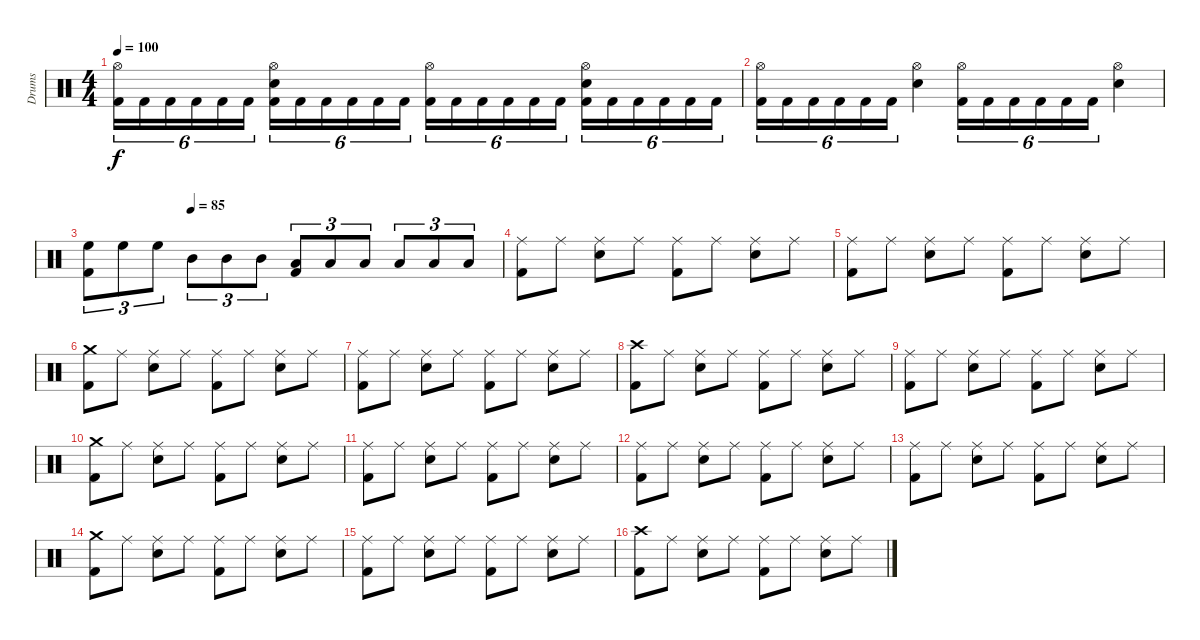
\track ("Drums" "Drums") {instrument percussion}
\staff {score}
\articulation defaults
\ts (4 4)
\tempo 100
\clef neutral
\ks c
("Hi-Hat (open)" "Kick (hit) 2").16{tu (6 4) dy f} "Kick (hit) 2".16{tu (6 4)} "Kick (hit) 2".16{tu (6 4)} "Kick (hit) 2".16{tu (6 4)} "Kick (hit) 2".16{tu (6 4)} "Kick (hit) 2".16{tu (6 4)} ("Hi-Hat (open)" "Snare (hit) 2" "Kick (hit) 2").16{tu (6 4)} "Kick (hit) 2".16{tu (6 4)} "Kick (hit) 2".16{tu (6 4)} "Kick (hit) 2".16{tu (6 4)} "Kick (hit) 2".16{tu (6 4)} "Kick (hit) 2".16{tu (6 4)} ("Hi-Hat (open)" "Kick (hit) 2").16{tu (6 4)} "Kick (hit) 2".16{tu (6 4)} "Kick (hit) 2".16{tu (6 4)} "Kick (hit) 2".16{tu (6 4)} "Kick (hit) 2".16{tu (6 4)} "Kick (hit) 2".16{tu (6 4)} ("Hi-Hat (open)" "Snare (hit) 2" "Kick (hit) 2").16{tu (6 4)} "Kick (hit) 2".16{tu (6 4)} "Kick (hit) 2".16{tu (6 4)} "Kick (hit) 2".16{tu (6 4)} "Kick (hit) 2".16{tu (6 4)} "Kick (hit) 2".16{tu (6 4)} |
("Hi-Hat (open)" "Kick (hit) 2").16{tu (6 4)} "Kick (hit) 2".16{tu (6 4)} "Kick (hit) 2".16{tu (6 4)} "Kick (hit) 2".16{tu (6 4)} "Kick (hit) 2".16{tu (6 4)} "Kick (hit) 2".16{tu (6 4)} ("Hi-Hat (open)" "Snare (hit) 2").4 ("Hi-Hat (open)" "Kick (hit) 2").16{tu (6 4)} "Kick (hit) 2".16{tu (6 4)} "Kick (hit) 2".16{tu (6 4)} "Kick (hit) 2".16{tu (6 4)} "Kick (hit) 2".16{tu (6 4)} "Kick (hit) 2".16{tu (6 4)} ("Hi-Hat (open)" "Snare (hit) 2").4 |
\tempo (85 0.25)
("High Floor Tom (hit)" "Kick (hit) 2").8{tu (3 2)} "High Floor Tom (hit)".8{tu (3 2)} "High Floor Tom (hit)".8{tu (3 2)} "Mid Tom (hit)".8{tu (3 2)} "Mid Tom (hit)".8{tu (3 2)} "Mid Tom (hit)".8{tu (3 2)} ("Low Tom (hit)" "Kick (hit) 2").8{tu (3 2)} "Low Tom (hit)".8{tu (3 2)} "Low Tom (hit)".8{tu (3 2)} "Low Floor Tom (hit)".8{tu (3 2)} "Low Floor Tom (hit)".8{tu (3 2)} "Low Floor Tom (hit)".8{tu (3 2)} |
("Ride (middle)" "Kick (hit) 2").8 "Ride (middle)".8 ("Ride (middle)" "Snare (hit) 2").8 "Ride (middle)".8 ("Ride (middle)" "Kick (hit) 2").8 "Ride (middle)".8 ("Ride (middle)" "Snare (hit) 2").8 "Ride (middle)".8 |
("Ride (middle)" "Kick (hit) 2").8 "Ride (middle)".8 ("Ride (middle)" "Snare (hit) 2").8 "Ride (middle)".8 ("Ride (middle)" "Kick (hit) 2").8 "Ride (middle)".8 ("Ride (middle)" "Snare (hit) 2").8 "Ride (middle)".8 |
("Crash medium (hit)" "Kick (hit) 2").8 "Ride (middle)".8 ("Ride (middle)" "Snare (hit) 2").8 "Ride (middle)".8 ("Ride (middle)" "Kick (hit) 2").8 "Ride (middle)".8 ("Ride (middle)" "Snare (hit) 2").8 "Ride (middle)".8 |
("Ride (middle)" "Kick (hit) 2").8 "Ride (middle)".8 ("Ride (middle)" "Snare (hit) 2").8 "Ride (middle)".8 ("Ride (middle)" "Kick (hit) 2").8 "Ride (middle)".8 ("Ride (middle)" "Snare (hit) 2").8 "Ride (middle)".8 |
("Crash high (hit)" "Kick (hit) 2").8 "Ride (middle)".8 ("Ride (middle)" "Snare (hit) 2").8 "Ride (middle)".8 ("Ride (middle)" "Kick (hit) 2").8 "Ride (middle)".8 ("Ride (middle)" "Snare (hit) 2").8 "Ride (middle)".8 |
("Ride (middle)" "Kick (hit) 2").8 "Ride (middle)".8 ("Ride (middle)" "Snare (hit) 2").8 "Ride (middle)".8 ("Ride (middle)" "Kick (hit) 2").8 "Ride (middle)".8 ("Ride (middle)" "Snare (hit) 2").8 "Ride (middle)".8 |
("Crash medium (hit)" "Kick (hit) 2").8 "Ride (middle)".8 ("Ride (middle)" "Snare (hit) 2").8 "Ride (middle)".8 ("Ride (middle)" "Kick (hit) 2").8 "Ride (middle)".8 ("Ride (middle)" "Snare (hit) 2").8 "Ride (middle)".8 |
("Ride (middle)" "Kick (hit) 2").8 "Ride (middle)".8 ("Ride (middle)" "Snare (hit) 2").8 "Ride (middle)".8 ("Ride (middle)" "Kick (hit) 2").8 "Ride (middle)".8 ("Ride (middle)" "Snare (hit) 2").8 "Ride (middle)".8 |
("Ride (middle)" "Kick (hit) 2").8 "Ride (middle)".8 ("Ride (middle)" "Snare (hit) 2").8 "Ride (middle)".8 ("Ride (middle)" "Kick (hit) 2").8 "Ride (middle)".8 ("Ride (middle)" "Snare (hit) 2").8 "Ride (middle)".8 |
("Ride (middle)" "Kick (hit) 2").8 "Ride (middle)".8 ("Ride (middle)" "Snare (hit) 2").8 "Ride (middle)".8 ("Ride (middle)" "Kick (hit) 2").8 "Ride (middle)".8 ("Ride (middle)" "Snare (hit) 2").8 "Ride (middle)".8 |
("Crash medium (hit)" "Kick (hit) 2").8 "Ride (middle)".8 ("Ride (middle)" "Snare (hit) 2").8 "Ride (middle)".8 ("Ride (middle)" "Kick (hit) 2").8 "Ride (middle)".8 ("Ride (middle)" "Snare (hit) 2").8 "Ride (middle)".8 |
("Ride (middle)" "Kick (hit) 2").8 "Ride (middle)".8 ("Ride (middle)" "Snare (hit) 2").8 "Ride (middle)".8 ("Ride (middle)" "Kick (hit) 2").8 "Ride (middle)".8 ("Ride (middle)" "Snare (hit) 2").8 "Ride (middle)".8 |
("Crash high (hit)" "Kick (hit) 2").8 "Ride (middle)".8 ("Ride (middle)" "Snare (hit) 2").8 "Ride (middle)".8 ("Ride (middle)" "Kick (hit) 2").8 "Ride (middle)".8 ("Ride (middle)" "Snare (hit) 2").8 "Ride (middle)".8
